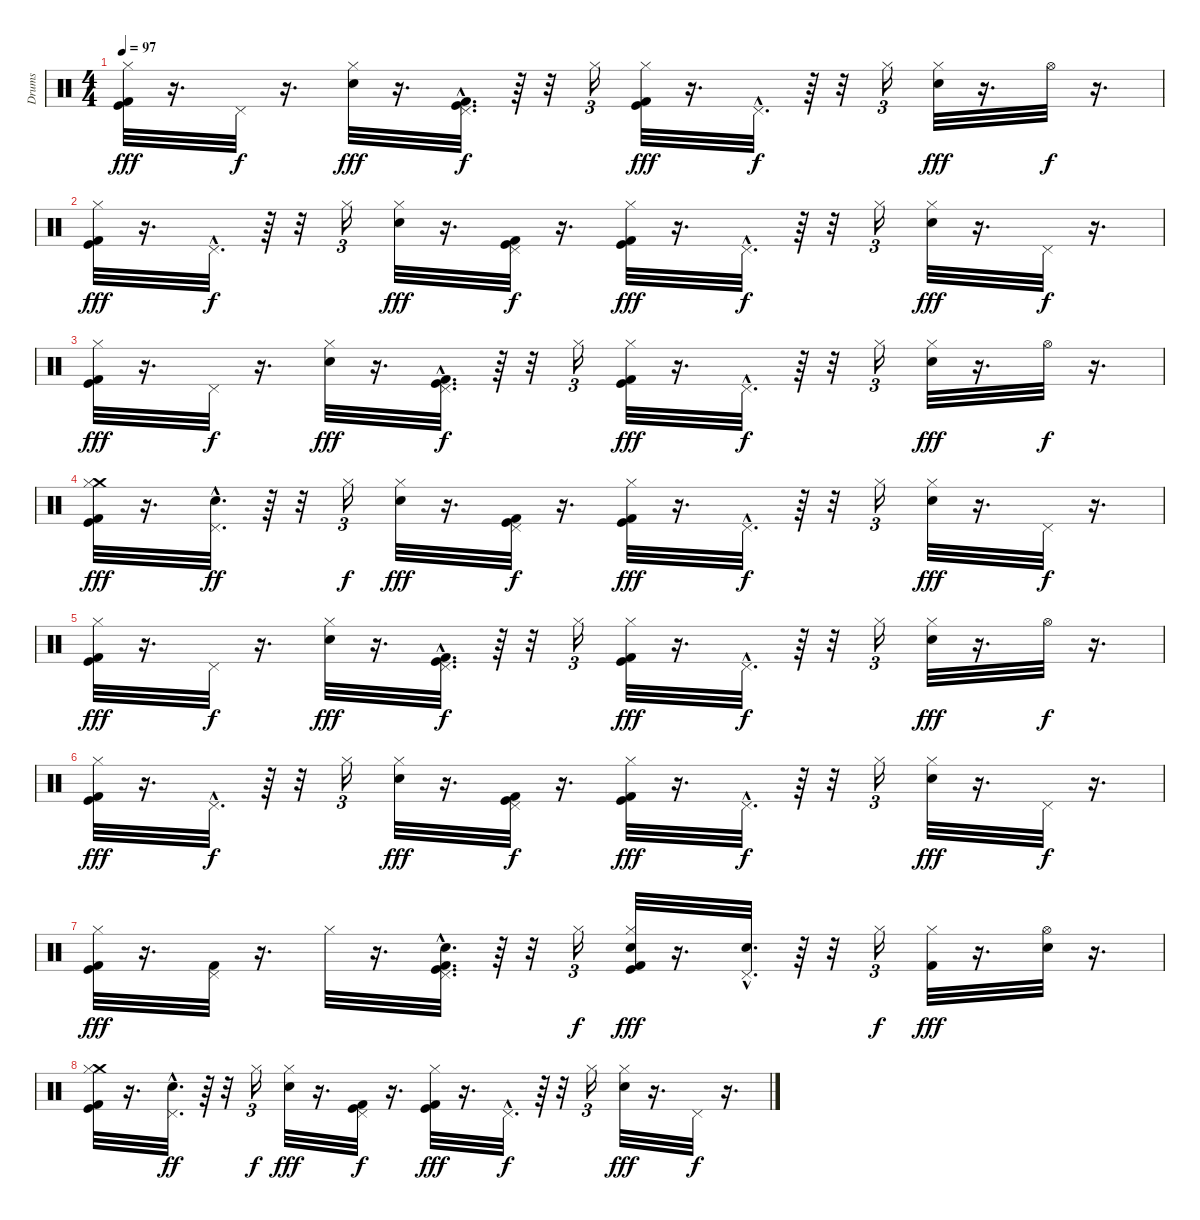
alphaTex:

\track ("Drums" "Drums") {instrument percussion}
\staff {score}
\articulation defaults
\ts (4 4)
\tempo 97
\clef neutral
\ks c
("Kick (hit)" "Kick (hit) 2" "Hi-Hat (closed)").32{dy fff} r.16{d} "Pedal Hi-Hat (hit)".32{dy f} r.16{d} ("Hi-Hat (closed)" "Snare (hit) 2").32{dy fff} r.16{d} ("Kick (hit) 2"{hac} "Kick (hit)"{hac} "Pedal Hi-Hat (hit)"{hac}).32{d dy f} r.64 r.32 "Hi-Hat (closed)".16{tu (3 2)} ("Kick (hit)" "Kick (hit) 2" "Hi-Hat (closed)").32{dy fff} r.16{d} "Pedal Hi-Hat (hit)"{hac}.32{d dy f} r.64 r.32 "Hi-Hat (closed)".16{tu (3 2)} ("Hi-Hat (closed)" "Snare (hit) 2").32{dy fff} r.16{d} "Hi-Hat (open)".32{dy f} r.16{d} |
("Kick (hit)" "Kick (hit) 2" "Hi-Hat (closed)").32{dy fff} r.16{d} "Pedal Hi-Hat (hit)"{hac}.32{d dy f} r.64 r.32 "Hi-Hat (closed)".16{tu (3 2)} ("Hi-Hat (closed)" "Snare (hit) 2").32{dy fff} r.16{d} ("Kick (hit) 2" "Kick (hit)" "Pedal Hi-Hat (hit)").32{dy f} r.16{d} ("Kick (hit)" "Kick (hit) 2" "Hi-Hat (closed)").32{dy fff} r.16{d} "Pedal Hi-Hat (hit)"{hac}.32{d dy f} r.64 r.32 "Hi-Hat (closed)".16{tu (3 2)} ("Hi-Hat (closed)" "Snare (hit) 2").32{dy fff} r.16{d} "Pedal Hi-Hat (hit)".32{dy f} r.16{d} |
("Kick (hit)" "Kick (hit) 2" "Hi-Hat (closed)").32{dy fff} r.16{d} "Pedal Hi-Hat (hit)".32{dy f} r.16{d} ("Hi-Hat (closed)" "Snare (hit) 2").32{dy fff} r.16{d} ("Kick (hit) 2"{hac} "Kick (hit)"{hac} "Pedal Hi-Hat (hit)"{hac}).32{d dy f} r.64 r.32 "Hi-Hat (closed)".16{tu (3 2)} ("Kick (hit)" "Kick (hit) 2" "Hi-Hat (closed)").32{dy fff} r.16{d} "Pedal Hi-Hat (hit)"{hac}.32{d dy f} r.64 r.32 "Hi-Hat (closed)".16{tu (3 2)} ("Hi-Hat (closed)" "Snare (hit) 2").32{dy fff} r.16{d} "Hi-Hat (open)".32{dy f} r.16{d} |
("Crash medium (hit)" "Kick (hit)" "Kick (hit) 2" "Hi-Hat (closed)").32{dy fff} r.16{d} ("Snare (hit) 2"{hac} "Pedal Hi-Hat (hit)"{hac}).32{d dy ff} r.64 r.32 "Hi-Hat (closed)".16{tu (3 2) dy f} ("Hi-Hat (closed)" "Snare (hit) 2").32{dy fff} r.16{d} ("Kick (hit) 2" "Kick (hit)" "Pedal Hi-Hat (hit)").32{dy f} r.16{d} ("Kick (hit)" "Kick (hit) 2" "Hi-Hat (closed)").32{dy fff} r.16{d} "Pedal Hi-Hat (hit)"{hac}.32{d dy f} r.64 r.32 "Hi-Hat (closed)".16{tu (3 2)} ("Hi-Hat (closed)" "Snare (hit) 2").32{dy fff} r.16{d} "Pedal Hi-Hat (hit)".32{dy f} r.16{d} |
("Kick (hit)" "Kick (hit) 2" "Hi-Hat (closed)").32{dy fff} r.16{d} "Pedal Hi-Hat (hit)".32{dy f} r.16{d} ("Hi-Hat (closed)" "Snare (hit) 2").32{dy fff} r.16{d} ("Kick (hit) 2"{hac} "Kick (hit)"{hac} "Pedal Hi-Hat (hit)"{hac}).32{d dy f} r.64 r.32 "Hi-Hat (closed)".16{tu (3 2)} ("Kick (hit)" "Kick (hit) 2" "Hi-Hat (closed)").32{dy fff} r.16{d} "Pedal Hi-Hat (hit)"{hac}.32{d dy f} r.64 r.32 "Hi-Hat (closed)".16{tu (3 2)} ("Hi-Hat (closed)" "Snare (hit) 2").32{dy fff} r.16{d} "Hi-Hat (open)".32{dy f} r.16{d} |
("Kick (hit)" "Kick (hit) 2" "Hi-Hat (closed)").32{dy fff} r.16{d} "Pedal Hi-Hat (hit)"{hac}.32{d dy f} r.64 r.32 "Hi-Hat (closed)".16{tu (3 2)} ("Hi-Hat (closed)" "Snare (hit) 2").32{dy fff} r.16{d} ("Kick (hit) 2" "Kick (hit)" "Pedal Hi-Hat (hit)").32{dy f} r.16{d} ("Kick (hit)" "Kick (hit) 2" "Hi-Hat (closed)").32{dy fff} r.16{d} "Pedal Hi-Hat (hit)"{hac}.32{d dy f} r.64 r.32 "Hi-Hat (closed)".16{tu (3 2)} ("Hi-Hat (closed)" "Snare (hit) 2").32{dy fff} r.16{d} "Pedal Hi-Hat (hit)".32{dy f} r.16{d} |
("Kick (hit)" "Kick (hit) 2" "Hi-Hat (closed)").32{dy fff} r.16{d} ("Kick (hit) 2" "Pedal Hi-Hat (hit)").32 r.16{d} "Hi-Hat (closed)".32 r.16{d} ("Snare (hit) 2"{hac} "Kick (hit) 2"{hac} "Kick (hit)"{hac} "Pedal Hi-Hat (hit)"{hac}).32{d} r.64 r.32 "Hi-Hat (closed)".16{tu (3 2) dy f} ("Snare (hit) 2" "Kick (hit)" "Kick (hit) 2" "Hi-Hat (closed)").32{dy fff} r.16{d} ("Snare (hit) 2"{hac} "Pedal Hi-Hat (hit)"{hac}).32{d} r.64 r.32 "Hi-Hat (closed)".16{tu (3 2) dy f} ("Kick (hit) 2" "Hi-Hat (closed)").32{dy fff} r.16{d} ("Snare (hit) 2" "Hi-Hat (open)").32 r.16{d} |
("Crash medium (hit)" "Kick (hit)" "Kick (hit) 2" "Hi-Hat (closed)").32 r.16{d} ("Snare (hit) 2"{hac} "Pedal Hi-Hat (hit)"{hac}).32{d dy ff} r.64 r.32 "Hi-Hat (closed)".16{tu (3 2) dy f} ("Hi-Hat (closed)" "Snare (hit) 2").32{dy fff} r.16{d} ("Kick (hit) 2" "Kick (hit)" "Pedal Hi-Hat (hit)").32{dy f} r.16{d} ("Kick (hit)" "Kick (hit) 2" "Hi-Hat (closed)").32{dy fff} r.16{d} "Pedal Hi-Hat (hit)"{hac}.32{d dy f} r.64 r.32 "Hi-Hat (closed)".16{tu (3 2)} ("Hi-Hat (closed)" "Snare (hit) 2").32{dy fff} r.16{d} "Pedal Hi-Hat (hit)".32{dy f} r.16{d}
